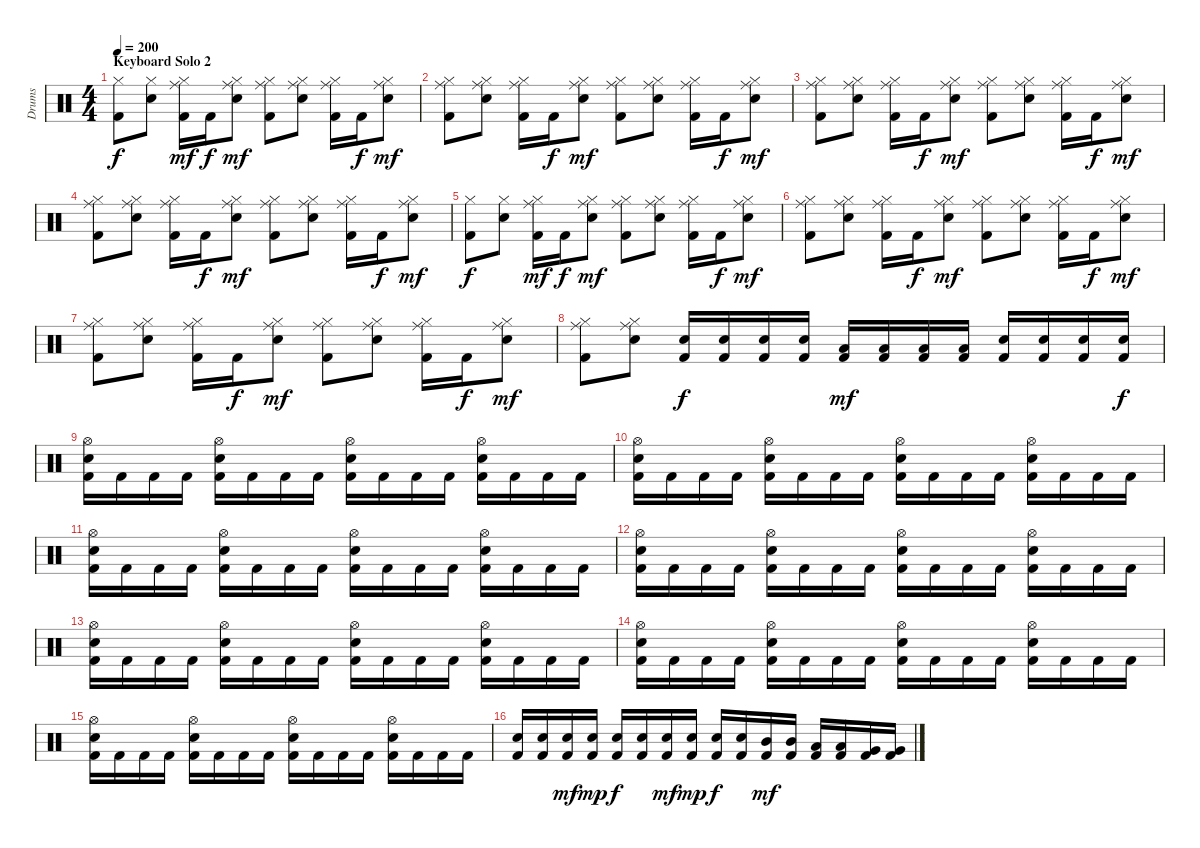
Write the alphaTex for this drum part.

\track ("Drums" "Drums") {instrument percussion}
\staff {score}
\articulation defaults
\ts (4 4)
\section ("" "Keyboard Solo 2")
\tempo 200
\clef neutral
\ks c
("Hi-Hat (closed)" "Kick (hit) 2").8{dy f} ("Hi-Hat (closed)" "Snare (hit) 2").8 ("Hi-Hat (closed)" "Ride (middle)" "Kick (hit) 2").16{dy mf} "Kick (hit) 2".16{dy f} ("Hi-Hat (closed)" "Ride (middle)" "Snare (hit) 2").8{dy mf} ("Hi-Hat (closed)" "Ride (middle)" "Kick (hit) 2").8 ("Hi-Hat (closed)" "Ride (middle)" "Snare (hit) 2").8 ("Hi-Hat (closed)" "Ride (middle)" "Kick (hit) 2").16 "Kick (hit) 2".16{dy f} ("Hi-Hat (closed)" "Ride (middle)" "Snare (hit) 2").8{dy mf} |
("Hi-Hat (closed)" "Ride (middle)" "Kick (hit) 2").8 ("Hi-Hat (closed)" "Ride (middle)" "Snare (hit) 2").8 ("Hi-Hat (closed)" "Ride (middle)" "Kick (hit) 2").16 "Kick (hit) 2".16{dy f} ("Hi-Hat (closed)" "Ride (middle)" "Snare (hit) 2").8{dy mf} ("Hi-Hat (closed)" "Ride (middle)" "Kick (hit) 2").8 ("Hi-Hat (closed)" "Ride (middle)" "Snare (hit) 2").8 ("Hi-Hat (closed)" "Ride (middle)" "Kick (hit) 2").16 "Kick (hit) 2".16{dy f} ("Hi-Hat (closed)" "Ride (middle)" "Snare (hit) 2").8{dy mf} |
("Hi-Hat (closed)" "Ride (middle)" "Kick (hit) 2").8 ("Hi-Hat (closed)" "Ride (middle)" "Snare (hit) 2").8 ("Hi-Hat (closed)" "Ride (middle)" "Kick (hit) 2").16 "Kick (hit) 2".16{dy f} ("Hi-Hat (closed)" "Ride (middle)" "Snare (hit) 2").8{dy mf} ("Hi-Hat (closed)" "Ride (middle)" "Kick (hit) 2").8 ("Hi-Hat (closed)" "Ride (middle)" "Snare (hit) 2").8 ("Hi-Hat (closed)" "Ride (middle)" "Kick (hit) 2").16 "Kick (hit) 2".16{dy f} ("Hi-Hat (closed)" "Ride (middle)" "Snare (hit) 2").8{dy mf} |
("Hi-Hat (closed)" "Ride (middle)" "Kick (hit) 2").8 ("Hi-Hat (closed)" "Ride (middle)" "Snare (hit) 2").8 ("Hi-Hat (closed)" "Ride (middle)" "Kick (hit) 2").16 "Kick (hit) 2".16{dy f} ("Hi-Hat (closed)" "Ride (middle)" "Snare (hit) 2").8{dy mf} ("Hi-Hat (closed)" "Ride (middle)" "Kick (hit) 2").8 ("Hi-Hat (closed)" "Ride (middle)" "Snare (hit) 2").8 ("Hi-Hat (closed)" "Ride (middle)" "Kick (hit) 2").16 "Kick (hit) 2".16{dy f} ("Hi-Hat (closed)" "Ride (middle)" "Snare (hit) 2").8{dy mf} |
("Hi-Hat (closed)" "Kick (hit) 2").8{dy f} ("Hi-Hat (closed)" "Snare (hit) 2").8 ("Hi-Hat (closed)" "Ride (middle)" "Kick (hit) 2").16{dy mf} "Kick (hit) 2".16{dy f} ("Hi-Hat (closed)" "Ride (middle)" "Snare (hit) 2").8{dy mf} ("Hi-Hat (closed)" "Ride (middle)" "Kick (hit) 2").8 ("Hi-Hat (closed)" "Ride (middle)" "Snare (hit) 2").8 ("Hi-Hat (closed)" "Ride (middle)" "Kick (hit) 2").16 "Kick (hit) 2".16{dy f} ("Hi-Hat (closed)" "Ride (middle)" "Snare (hit) 2").8{dy mf} |
("Hi-Hat (closed)" "Ride (middle)" "Kick (hit) 2").8 ("Hi-Hat (closed)" "Ride (middle)" "Snare (hit) 2").8 ("Hi-Hat (closed)" "Ride (middle)" "Kick (hit) 2").16 "Kick (hit) 2".16{dy f} ("Hi-Hat (closed)" "Ride (middle)" "Snare (hit) 2").8{dy mf} ("Hi-Hat (closed)" "Ride (middle)" "Kick (hit) 2").8 ("Hi-Hat (closed)" "Ride (middle)" "Snare (hit) 2").8 ("Hi-Hat (closed)" "Ride (middle)" "Kick (hit) 2").16 "Kick (hit) 2".16{dy f} ("Hi-Hat (closed)" "Ride (middle)" "Snare (hit) 2").8{dy mf} |
("Hi-Hat (closed)" "Ride (middle)" "Kick (hit) 2").8 ("Hi-Hat (closed)" "Ride (middle)" "Snare (hit) 2").8 ("Hi-Hat (closed)" "Ride (middle)" "Kick (hit) 2").16 "Kick (hit) 2".16{dy f} ("Hi-Hat (closed)" "Ride (middle)" "Snare (hit) 2").8{dy mf} ("Hi-Hat (closed)" "Ride (middle)" "Kick (hit) 2").8 ("Hi-Hat (closed)" "Ride (middle)" "Snare (hit) 2").8 ("Hi-Hat (closed)" "Ride (middle)" "Kick (hit) 2").16 "Kick (hit) 2".16{dy f} ("Hi-Hat (closed)" "Ride (middle)" "Snare (hit) 2").8{dy mf} |
("Hi-Hat (closed)" "Ride (middle)" "Kick (hit) 2").8 ("Hi-Hat (closed)" "Ride (middle)" "Snare (hit) 2").8 ("Snare (hit) 2" "Kick (hit) 2").16{dy f} ("Snare (hit) 2" "Kick (hit) 2").16 ("Snare (hit) 2" "Kick (hit) 2").16 ("Snare (hit) 2" "Kick (hit) 2").16 ("Low Floor Tom (hit)" "Kick (hit) 2").16{dy mf} ("Low Floor Tom (hit)" "Kick (hit) 2").16 ("Low Floor Tom (hit)" "Kick (hit) 2").16 ("Low Floor Tom (hit)" "Kick (hit) 2").16 ("Snare (hit) 2" "Kick (hit) 2").16 ("Snare (hit) 2" "Kick (hit) 2").16 ("Snare (hit) 2" "Kick (hit) 2").16 ("Snare (hit) 2" "Kick (hit) 2").16{dy f} |
("Hi-Hat (open)" "Snare (hit) 2" "Kick (hit) 2").16 "Kick (hit) 2".16 "Kick (hit) 2".16 "Kick (hit) 2".16 ("Hi-Hat (open)" "Snare (hit) 2" "Kick (hit) 2").16 "Kick (hit) 2".16 "Kick (hit) 2".16 "Kick (hit) 2".16 ("Hi-Hat (open)" "Snare (hit) 2" "Kick (hit) 2").16 "Kick (hit) 2".16 "Kick (hit) 2".16 "Kick (hit) 2".16 ("Hi-Hat (open)" "Snare (hit) 2" "Kick (hit) 2").16 "Kick (hit) 2".16 "Kick (hit) 2".16 "Kick (hit) 2".16 |
("Hi-Hat (open)" "Snare (hit) 2" "Kick (hit) 2").16 "Kick (hit) 2".16 "Kick (hit) 2".16 "Kick (hit) 2".16 ("Hi-Hat (open)" "Snare (hit) 2" "Kick (hit) 2").16 "Kick (hit) 2".16 "Kick (hit) 2".16 "Kick (hit) 2".16 ("Hi-Hat (open)" "Snare (hit) 2" "Kick (hit) 2").16 "Kick (hit) 2".16 "Kick (hit) 2".16 "Kick (hit) 2".16 ("Hi-Hat (open)" "Snare (hit) 2" "Kick (hit) 2").16 "Kick (hit) 2".16 "Kick (hit) 2".16 "Kick (hit) 2".16 |
("Hi-Hat (open)" "Snare (hit) 2" "Kick (hit) 2").16 "Kick (hit) 2".16 "Kick (hit) 2".16 "Kick (hit) 2".16 ("Hi-Hat (open)" "Snare (hit) 2" "Kick (hit) 2").16 "Kick (hit) 2".16 "Kick (hit) 2".16 "Kick (hit) 2".16 ("Hi-Hat (open)" "Snare (hit) 2" "Kick (hit) 2").16 "Kick (hit) 2".16 "Kick (hit) 2".16 "Kick (hit) 2".16 ("Hi-Hat (open)" "Snare (hit) 2" "Kick (hit) 2").16 "Kick (hit) 2".16 "Kick (hit) 2".16 "Kick (hit) 2".16 |
("Hi-Hat (open)" "Snare (hit) 2" "Kick (hit) 2").16 "Kick (hit) 2".16 "Kick (hit) 2".16 "Kick (hit) 2".16 ("Hi-Hat (open)" "Snare (hit) 2" "Kick (hit) 2").16 "Kick (hit) 2".16 "Kick (hit) 2".16 "Kick (hit) 2".16 ("Hi-Hat (open)" "Snare (hit) 2" "Kick (hit) 2").16 "Kick (hit) 2".16 "Kick (hit) 2".16 "Kick (hit) 2".16 ("Hi-Hat (open)" "Snare (hit) 2" "Kick (hit) 2").16 "Kick (hit) 2".16 "Kick (hit) 2".16 "Kick (hit) 2".16 |
("Hi-Hat (open)" "Snare (hit) 2" "Kick (hit) 2").16 "Kick (hit) 2".16 "Kick (hit) 2".16 "Kick (hit) 2".16 ("Hi-Hat (open)" "Snare (hit) 2" "Kick (hit) 2").16 "Kick (hit) 2".16 "Kick (hit) 2".16 "Kick (hit) 2".16 ("Hi-Hat (open)" "Snare (hit) 2" "Kick (hit) 2").16 "Kick (hit) 2".16 "Kick (hit) 2".16 "Kick (hit) 2".16 ("Hi-Hat (open)" "Snare (hit) 2" "Kick (hit) 2").16 "Kick (hit) 2".16 "Kick (hit) 2".16 "Kick (hit) 2".16 |
("Hi-Hat (open)" "Snare (hit) 2" "Kick (hit) 2").16 "Kick (hit) 2".16 "Kick (hit) 2".16 "Kick (hit) 2".16 ("Hi-Hat (open)" "Snare (hit) 2" "Kick (hit) 2").16 "Kick (hit) 2".16 "Kick (hit) 2".16 "Kick (hit) 2".16 ("Hi-Hat (open)" "Snare (hit) 2" "Kick (hit) 2").16 "Kick (hit) 2".16 "Kick (hit) 2".16 "Kick (hit) 2".16 ("Hi-Hat (open)" "Snare (hit) 2" "Kick (hit) 2").16 "Kick (hit) 2".16 "Kick (hit) 2".16 "Kick (hit) 2".16 |
("Hi-Hat (open)" "Snare (hit) 2" "Kick (hit) 2").16 "Kick (hit) 2".16 "Kick (hit) 2".16 "Kick (hit) 2".16 ("Hi-Hat (open)" "Snare (hit) 2" "Kick (hit) 2").16 "Kick (hit) 2".16 "Kick (hit) 2".16 "Kick (hit) 2".16 ("Hi-Hat (open)" "Snare (hit) 2" "Kick (hit) 2").16 "Kick (hit) 2".16 "Kick (hit) 2".16 "Kick (hit) 2".16 ("Hi-Hat (open)" "Snare (hit) 2" "Kick (hit) 2").16 "Kick (hit) 2".16 "Kick (hit) 2".16 "Kick (hit) 2".16 |
("Snare (hit) 2" "Kick (hit) 2").16 ("Snare (hit) 2" "Kick (hit) 2").16 ("Snare (hit) 2" "Kick (hit) 2").16{dy mf} ("Snare (hit) 2" "Kick (hit) 2").16{dy mp} ("Snare (hit) 2" "Kick (hit) 2").16{dy f} ("Snare (hit) 2" "Kick (hit) 2").16 ("Snare (hit) 2" "Kick (hit) 2").16{dy mf} ("Snare (hit) 2" "Kick (hit) 2").16{dy mp} ("Snare (hit) 2" "Kick (hit) 2").16{dy f} ("Snare (hit) 2" "Kick (hit) 2").16 ("Mid Tom (hit)" "Kick (hit) 2").16{dy mf} ("Mid Tom (hit)" "Kick (hit) 2").16 ("Low Tom (hit)" "Kick (hit) 2").16 ("Low Tom (hit)" "Kick (hit) 2").16 ("Very Low Tom (hit)" "Kick (hit) 2").16 ("Very Low Tom (hit)" "Kick (hit) 2").16
